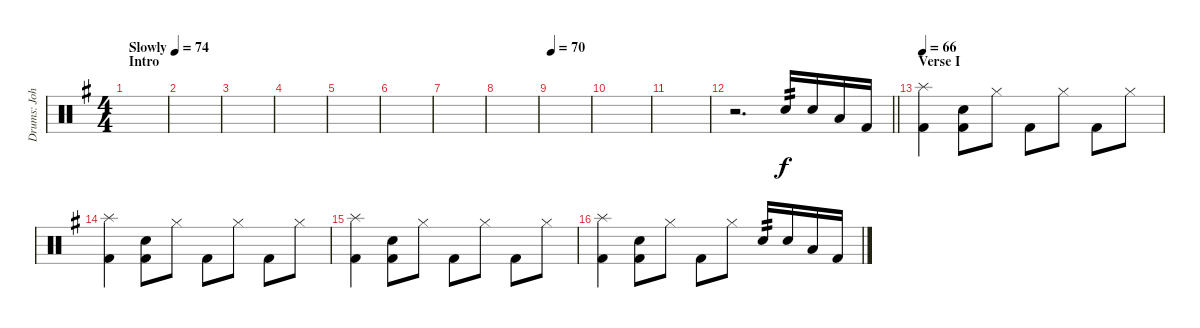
\track ("Drums: John" "Drums: Joh") {instrument percussion}
\staff {score}
\articulation defaults
\ts (4 4)
\section ("" "Intro")
\tempo (74 "Slowly")
\clef neutral
\ks g
|
|
|
|
|
|
|
|
\tempo 70
|
|
|
\barLineRight lightlight
r.2{d} "Electric Snare (hit)".16{tp 2} "Electric Snare (hit)".16 "Low Tom (hit)".16 "Kick (hit) 2".16 |
\section ("" "Verse I")
\tempo 66
("Splash (hit)" "Kick (hit) 2").4 ("Electric Snare (hit)" "Kick (hit) 2").8 "Hi-Hat (closed)".8 "Kick (hit) 2".8 "Hi-Hat (closed)".8 "Kick (hit) 2".8 "Hi-Hat (closed)".8 |
("Splash (hit)" "Kick (hit) 2").4 ("Electric Snare (hit)" "Kick (hit) 2").8 "Hi-Hat (closed)".8 "Kick (hit) 2".8 "Hi-Hat (closed)".8 "Kick (hit) 2".8 "Hi-Hat (closed)".8 |
("Splash (hit)" "Kick (hit) 2").4 ("Electric Snare (hit)" "Kick (hit) 2").8 "Hi-Hat (closed)".8 "Kick (hit) 2".8 "Hi-Hat (closed)".8 "Kick (hit) 2".8 "Hi-Hat (closed)".8 |
("Splash (hit)" "Kick (hit) 2").4 ("Electric Snare (hit)" "Kick (hit) 2").8 "Hi-Hat (closed)".8 "Kick (hit) 2".8 "Hi-Hat (closed)".8 "Electric Snare (hit)".16{tp 2} "Electric Snare (hit)".16 "Low Tom (hit)".16 "Kick (hit) 2".16
